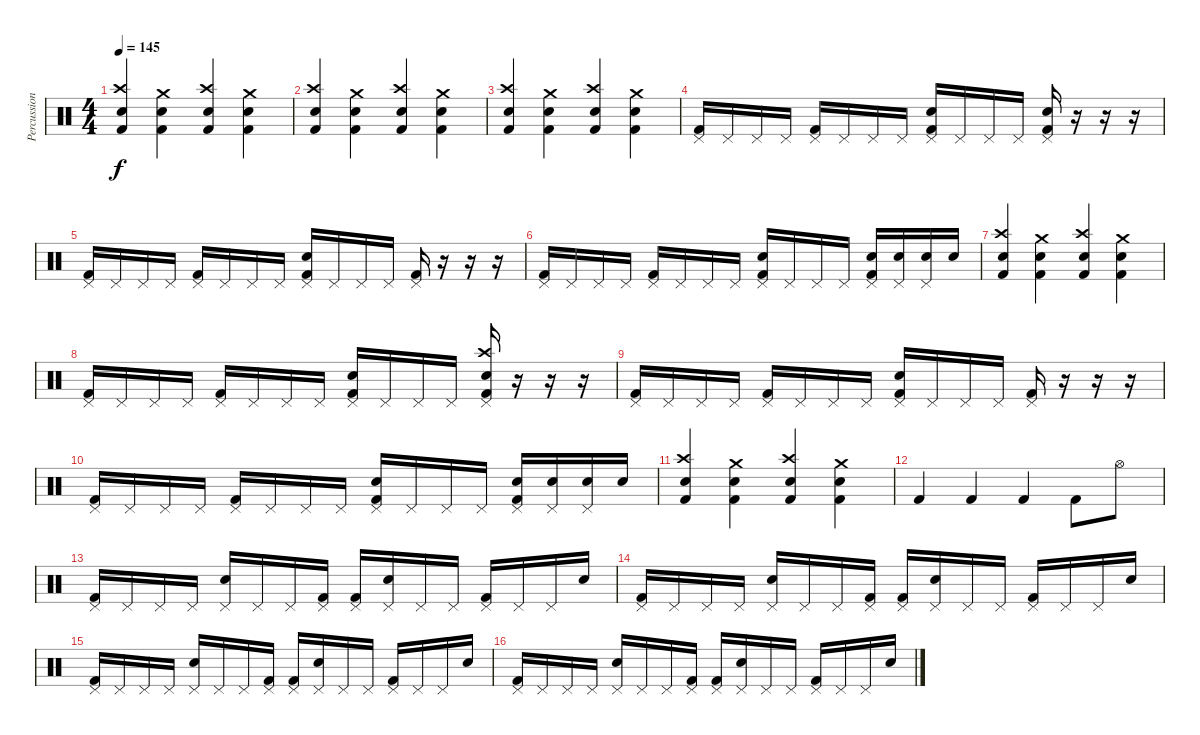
\track ("Percussion" "Percussion") {instrument percussion}
\staff {score}
\articulation defaults
\ts (4 4)
\tempo 145
\clef neutral
\ks c
("Electric Snare (hit)" "Crash high (hit)" "Kick (hit) 2").4{dy f} ("Electric Snare (hit)" "Crash medium (hit)" "Kick (hit) 2").4 ("Electric Snare (hit)" "Crash high (hit)" "Kick (hit) 2").4 ("Electric Snare (hit)" "Crash medium (hit)" "Kick (hit) 2").4 |
("Electric Snare (hit)" "Crash high (hit)" "Kick (hit) 2").4 ("Electric Snare (hit)" "Crash medium (hit)" "Kick (hit) 2").4 ("Electric Snare (hit)" "Crash high (hit)" "Kick (hit) 2").4 ("Electric Snare (hit)" "Crash medium (hit)" "Kick (hit) 2").4 |
("Electric Snare (hit)" "Crash high (hit)" "Kick (hit) 2").4 ("Electric Snare (hit)" "Crash medium (hit)" "Kick (hit) 2").4 ("Electric Snare (hit)" "Crash high (hit)" "Kick (hit) 2").4 ("Electric Snare (hit)" "Crash medium (hit)" "Kick (hit) 2").4 |
("Kick (hit) 2" "Pedal Hi-Hat (hit)").16 "Pedal Hi-Hat (hit)".16 "Pedal Hi-Hat (hit)".16 "Pedal Hi-Hat (hit)".16 ("Kick (hit) 2" "Pedal Hi-Hat (hit)").16 "Pedal Hi-Hat (hit)".16 "Pedal Hi-Hat (hit)".16 "Pedal Hi-Hat (hit)".16 ("Electric Snare (hit)" "Kick (hit) 2" "Pedal Hi-Hat (hit)").16 "Pedal Hi-Hat (hit)".16 "Pedal Hi-Hat (hit)".16 "Pedal Hi-Hat (hit)".16 ("Electric Snare (hit)" "Kick (hit) 2" "Pedal Hi-Hat (hit)").16 r.16 r.16 r.16 |
("Kick (hit) 2" "Pedal Hi-Hat (hit)").16 "Pedal Hi-Hat (hit)".16 "Pedal Hi-Hat (hit)".16 "Pedal Hi-Hat (hit)".16 ("Kick (hit) 2" "Pedal Hi-Hat (hit)").16 "Pedal Hi-Hat (hit)".16 "Pedal Hi-Hat (hit)".16 "Pedal Hi-Hat (hit)".16 ("Electric Snare (hit)" "Kick (hit) 2" "Pedal Hi-Hat (hit)").16 "Pedal Hi-Hat (hit)".16 "Pedal Hi-Hat (hit)".16 "Pedal Hi-Hat (hit)".16 ("Kick (hit) 2" "Pedal Hi-Hat (hit)").16 r.16 r.16 r.16 |
("Kick (hit) 2" "Pedal Hi-Hat (hit)").16 "Pedal Hi-Hat (hit)".16 "Pedal Hi-Hat (hit)".16 "Pedal Hi-Hat (hit)".16 ("Kick (hit) 2" "Pedal Hi-Hat (hit)").16 "Pedal Hi-Hat (hit)".16 "Pedal Hi-Hat (hit)".16 "Pedal Hi-Hat (hit)".16 ("Electric Snare (hit)" "Kick (hit) 2" "Pedal Hi-Hat (hit)").16 "Pedal Hi-Hat (hit)".16 "Pedal Hi-Hat (hit)".16 "Pedal Hi-Hat (hit)".16 ("Electric Snare (hit)" "Kick (hit) 2" "Pedal Hi-Hat (hit)").16 ("Electric Snare (hit)" "Pedal Hi-Hat (hit)").16 ("Electric Snare (hit)" "Pedal Hi-Hat (hit)").16 "Electric Snare (hit)".16 |
("Electric Snare (hit)" "Crash high (hit)" "Kick (hit) 2").4 ("Electric Snare (hit)" "Crash medium (hit)" "Kick (hit) 2").4 ("Electric Snare (hit)" "Crash high (hit)" "Kick (hit) 2").4 ("Electric Snare (hit)" "Crash medium (hit)" "Kick (hit) 2").4 |
("Kick (hit) 2" "Pedal Hi-Hat (hit)").16 "Pedal Hi-Hat (hit)".16 "Pedal Hi-Hat (hit)".16 "Pedal Hi-Hat (hit)".16 ("Kick (hit) 2" "Pedal Hi-Hat (hit)").16 "Pedal Hi-Hat (hit)".16 "Pedal Hi-Hat (hit)".16 "Pedal Hi-Hat (hit)".16 ("Electric Snare (hit)" "Kick (hit) 2" "Pedal Hi-Hat (hit)").16 "Pedal Hi-Hat (hit)".16 "Pedal Hi-Hat (hit)".16 "Pedal Hi-Hat (hit)".16 ("Crash high (hit)" "Electric Snare (hit)" "Kick (hit) 2" "Pedal Hi-Hat (hit)").16 r.16 r.16 r.16 |
("Kick (hit) 2" "Pedal Hi-Hat (hit)").16 "Pedal Hi-Hat (hit)".16 "Pedal Hi-Hat (hit)".16 "Pedal Hi-Hat (hit)".16 ("Kick (hit) 2" "Pedal Hi-Hat (hit)").16 "Pedal Hi-Hat (hit)".16 "Pedal Hi-Hat (hit)".16 "Pedal Hi-Hat (hit)".16 ("Electric Snare (hit)" "Kick (hit) 2" "Pedal Hi-Hat (hit)").16 "Pedal Hi-Hat (hit)".16 "Pedal Hi-Hat (hit)".16 "Pedal Hi-Hat (hit)".16 ("Kick (hit) 2" "Pedal Hi-Hat (hit)").16 r.16 r.16 r.16 |
("Kick (hit) 2" "Pedal Hi-Hat (hit)").16 "Pedal Hi-Hat (hit)".16 "Pedal Hi-Hat (hit)".16 "Pedal Hi-Hat (hit)".16 ("Kick (hit) 2" "Pedal Hi-Hat (hit)").16 "Pedal Hi-Hat (hit)".16 "Pedal Hi-Hat (hit)".16 "Pedal Hi-Hat (hit)".16 ("Electric Snare (hit)" "Kick (hit) 2" "Pedal Hi-Hat (hit)").16 "Pedal Hi-Hat (hit)".16 "Pedal Hi-Hat (hit)".16 "Pedal Hi-Hat (hit)".16 ("Electric Snare (hit)" "Kick (hit) 2" "Pedal Hi-Hat (hit)").16 ("Electric Snare (hit)" "Pedal Hi-Hat (hit)").16 ("Electric Snare (hit)" "Pedal Hi-Hat (hit)").16 "Electric Snare (hit)".16 |
("Electric Snare (hit)" "Crash high (hit)" "Kick (hit) 2").4 ("Electric Snare (hit)" "Crash medium (hit)" "Kick (hit) 2").4 ("Electric Snare (hit)" "Crash high (hit)" "Kick (hit) 2").4 ("Electric Snare (hit)" "Crash medium (hit)" "Kick (hit) 2").4 |
"Kick (hit) 2".4 "Kick (hit) 2".4 "Kick (hit) 2".4 "Kick (hit) 2".8 "Hi-Hat (open)".8 |
("Kick (hit) 2" "Pedal Hi-Hat (hit)").16 "Pedal Hi-Hat (hit)".16 "Pedal Hi-Hat (hit)".16 "Pedal Hi-Hat (hit)".16 ("Electric Snare (hit)" "Pedal Hi-Hat (hit)").16 "Pedal Hi-Hat (hit)".16 "Pedal Hi-Hat (hit)".16 ("Kick (hit) 2" "Pedal Hi-Hat (hit)").16 ("Kick (hit) 2" "Pedal Hi-Hat (hit)").16 ("Electric Snare (hit)" "Pedal Hi-Hat (hit)").16 "Pedal Hi-Hat (hit)".16 "Pedal Hi-Hat (hit)".16 ("Kick (hit) 2" "Pedal Hi-Hat (hit)").16 "Pedal Hi-Hat (hit)".16 "Pedal Hi-Hat (hit)".16 "Electric Snare (hit)".16 |
("Kick (hit) 2" "Pedal Hi-Hat (hit)").16 "Pedal Hi-Hat (hit)".16 "Pedal Hi-Hat (hit)".16 "Pedal Hi-Hat (hit)".16 ("Electric Snare (hit)" "Pedal Hi-Hat (hit)").16 "Pedal Hi-Hat (hit)".16 "Pedal Hi-Hat (hit)".16 ("Kick (hit) 2" "Pedal Hi-Hat (hit)").16 ("Kick (hit) 2" "Pedal Hi-Hat (hit)").16 ("Electric Snare (hit)" "Pedal Hi-Hat (hit)").16 "Pedal Hi-Hat (hit)".16 "Pedal Hi-Hat (hit)".16 ("Kick (hit) 2" "Pedal Hi-Hat (hit)").16 "Pedal Hi-Hat (hit)".16 "Pedal Hi-Hat (hit)".16 "Electric Snare (hit)".16 |
("Kick (hit) 2" "Pedal Hi-Hat (hit)").16 "Pedal Hi-Hat (hit)".16 "Pedal Hi-Hat (hit)".16 "Pedal Hi-Hat (hit)".16 ("Electric Snare (hit)" "Pedal Hi-Hat (hit)").16 "Pedal Hi-Hat (hit)".16 "Pedal Hi-Hat (hit)".16 ("Kick (hit) 2" "Pedal Hi-Hat (hit)").16 ("Kick (hit) 2" "Pedal Hi-Hat (hit)").16 ("Electric Snare (hit)" "Pedal Hi-Hat (hit)").16 "Pedal Hi-Hat (hit)".16 "Pedal Hi-Hat (hit)".16 ("Kick (hit) 2" "Pedal Hi-Hat (hit)").16 "Pedal Hi-Hat (hit)".16 "Pedal Hi-Hat (hit)".16 "Electric Snare (hit)".16 |
("Kick (hit) 2" "Pedal Hi-Hat (hit)").16 "Pedal Hi-Hat (hit)".16 "Pedal Hi-Hat (hit)".16 "Pedal Hi-Hat (hit)".16 ("Electric Snare (hit)" "Pedal Hi-Hat (hit)").16 "Pedal Hi-Hat (hit)".16 "Pedal Hi-Hat (hit)".16 ("Kick (hit) 2" "Pedal Hi-Hat (hit)").16 ("Kick (hit) 2" "Pedal Hi-Hat (hit)").16 ("Electric Snare (hit)" "Pedal Hi-Hat (hit)").16 "Pedal Hi-Hat (hit)".16 "Pedal Hi-Hat (hit)".16 ("Kick (hit) 2" "Pedal Hi-Hat (hit)").16 "Pedal Hi-Hat (hit)".16 "Pedal Hi-Hat (hit)".16 "Electric Snare (hit)".16
